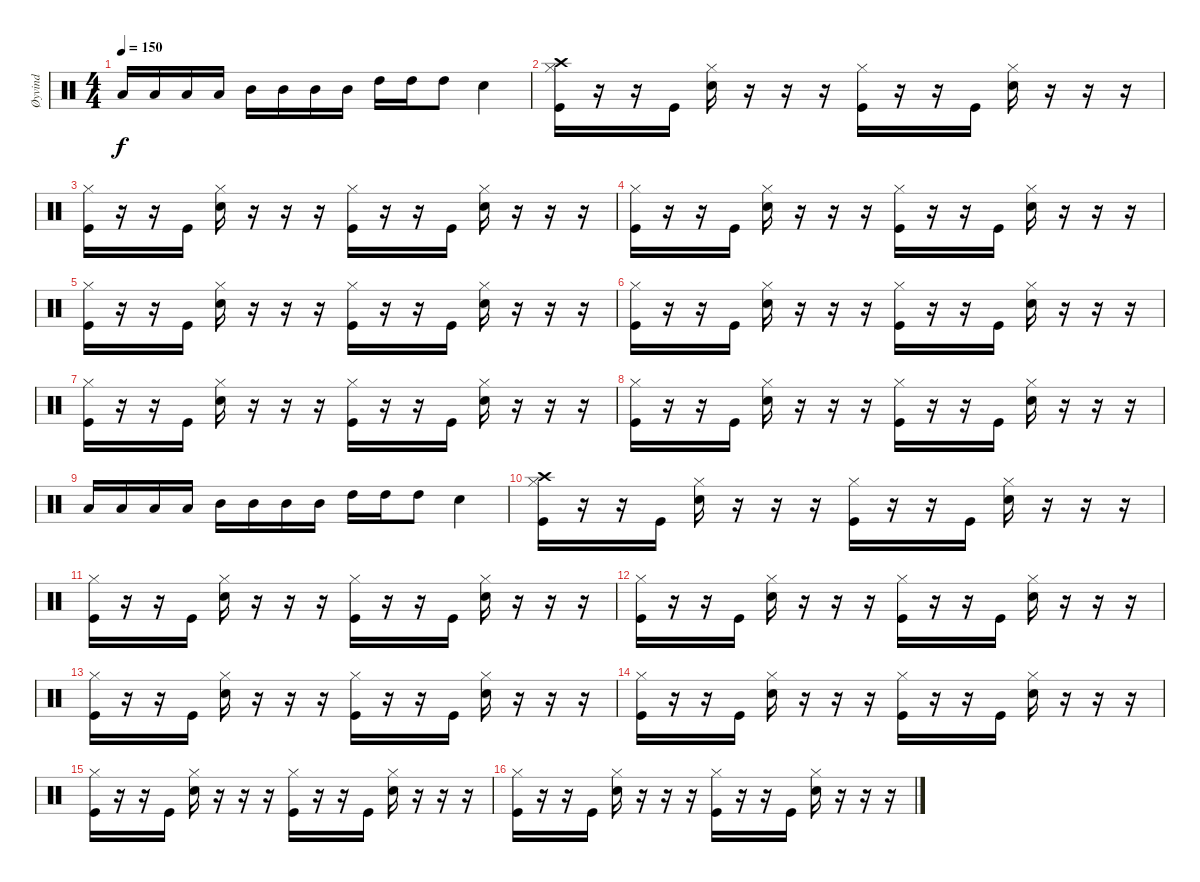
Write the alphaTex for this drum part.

\track ("Øyvind" "Øyvind") {instrument percussion}
\staff {score}
\articulation defaults
\ts (4 4)
\tempo 150
\clef neutral
\ks c "Low Tom (hit)".16{dy f} "Low Tom (hit)".16 "Low Tom (hit)".16 "Low Tom (hit)".16 "Mid Tom (hit)".16 "Mid Tom (hit)".16 "Mid Tom (hit)".16 "Mid Tom (hit)".16 "High Tom (hit)".16 "High Tom (hit)".16 "High Tom (hit)".8 "Snare (hit) 2".4
|
("Crash high (hit)" "Kick (hit)" "Hi-Hat (closed)").16 r.16 r.16 "Kick (hit)".16 ("Electric Snare (hit)" "Hi-Hat (closed)").16 r.16 r.16 r.16 ("Kick (hit)" "Hi-Hat (closed)").16 r.16 r.16 "Kick (hit)".16 ("Electric Snare (hit)" "Hi-Hat (closed)").16 r.16 r.16 r.16 |
("Kick (hit)" "Hi-Hat (closed)").16 r.16 r.16 "Kick (hit)".16 ("Electric Snare (hit)" "Hi-Hat (closed)").16 r.16 r.16 r.16 ("Kick (hit)" "Hi-Hat (closed)").16 r.16 r.16 "Kick (hit)".16 ("Electric Snare (hit)" "Hi-Hat (closed)").16 r.16 r.16 r.16 |
("Kick (hit)" "Hi-Hat (closed)").16 r.16 r.16 "Kick (hit)".16 ("Electric Snare (hit)" "Hi-Hat (closed)").16 r.16 r.16 r.16 ("Kick (hit)" "Hi-Hat (closed)").16 r.16 r.16 "Kick (hit)".16 ("Electric Snare (hit)" "Hi-Hat (closed)").16 r.16 r.16 r.16 |
("Kick (hit)" "Hi-Hat (closed)").16 r.16 r.16 "Kick (hit)".16 ("Electric Snare (hit)" "Hi-Hat (closed)").16 r.16 r.16 r.16 ("Kick (hit)" "Hi-Hat (closed)").16 r.16 r.16 "Kick (hit)".16 ("Electric Snare (hit)" "Hi-Hat (closed)").16 r.16 r.16 r.16 |
("Kick (hit)" "Hi-Hat (closed)").16 r.16 r.16 "Kick (hit)".16 ("Electric Snare (hit)" "Hi-Hat (closed)").16 r.16 r.16 r.16 ("Kick (hit)" "Hi-Hat (closed)").16 r.16 r.16 "Kick (hit)".16 ("Electric Snare (hit)" "Hi-Hat (closed)").16 r.16 r.16 r.16 |
("Kick (hit)" "Hi-Hat (closed)").16 r.16 r.16 "Kick (hit)".16 ("Electric Snare (hit)" "Hi-Hat (closed)").16 r.16 r.16 r.16 ("Kick (hit)" "Hi-Hat (closed)").16 r.16 r.16 "Kick (hit)".16 ("Electric Snare (hit)" "Hi-Hat (closed)").16 r.16 r.16 r.16 |
("Kick (hit)" "Hi-Hat (closed)").16 r.16 r.16 "Kick (hit)".16 ("Electric Snare (hit)" "Hi-Hat (closed)").16 r.16 r.16 r.16 ("Kick (hit)" "Hi-Hat (closed)").16 r.16 r.16 "Kick (hit)".16 ("Electric Snare (hit)" "Hi-Hat (closed)").16 r.16 r.16 r.16 |
"Low Tom (hit)".16 "Low Tom (hit)".16 "Low Tom (hit)".16 "Low Tom (hit)".16 "Mid Tom (hit)".16 "Mid Tom (hit)".16 "Mid Tom (hit)".16 "Mid Tom (hit)".16 "High Tom (hit)".16 "High Tom (hit)".16 "High Tom (hit)".8 "Snare (hit) 2".4 |
("Crash high (hit)" "Kick (hit)" "Hi-Hat (closed)").16 r.16 r.16 "Kick (hit)".16 ("Electric Snare (hit)" "Hi-Hat (closed)").16 r.16 r.16 r.16 ("Kick (hit)" "Hi-Hat (closed)").16 r.16 r.16 "Kick (hit)".16 ("Electric Snare (hit)" "Hi-Hat (closed)").16 r.16 r.16 r.16 |
("Kick (hit)" "Hi-Hat (closed)").16 r.16 r.16 "Kick (hit)".16 ("Electric Snare (hit)" "Hi-Hat (closed)").16 r.16 r.16 r.16 ("Kick (hit)" "Hi-Hat (closed)").16 r.16 r.16 "Kick (hit)".16 ("Electric Snare (hit)" "Hi-Hat (closed)").16 r.16 r.16 r.16 |
("Kick (hit)" "Hi-Hat (closed)").16 r.16 r.16 "Kick (hit)".16 ("Electric Snare (hit)" "Hi-Hat (closed)").16 r.16 r.16 r.16 ("Kick (hit)" "Hi-Hat (closed)").16 r.16 r.16 "Kick (hit)".16 ("Electric Snare (hit)" "Hi-Hat (closed)").16 r.16 r.16 r.16 |
("Kick (hit)" "Hi-Hat (closed)").16 r.16 r.16 "Kick (hit)".16 ("Electric Snare (hit)" "Hi-Hat (closed)").16 r.16 r.16 r.16 ("Kick (hit)" "Hi-Hat (closed)").16 r.16 r.16 "Kick (hit)".16 ("Electric Snare (hit)" "Hi-Hat (closed)").16 r.16 r.16 r.16 |
("Kick (hit)" "Hi-Hat (closed)").16 r.16 r.16 "Kick (hit)".16 ("Electric Snare (hit)" "Hi-Hat (closed)").16 r.16 r.16 r.16 ("Kick (hit)" "Hi-Hat (closed)").16 r.16 r.16 "Kick (hit)".16 ("Electric Snare (hit)" "Hi-Hat (closed)").16 r.16 r.16 r.16 |
("Kick (hit)" "Hi-Hat (closed)").16 r.16 r.16 "Kick (hit)".16 ("Electric Snare (hit)" "Hi-Hat (closed)").16 r.16 r.16 r.16 ("Kick (hit)" "Hi-Hat (closed)").16 r.16 r.16 "Kick (hit)".16 ("Electric Snare (hit)" "Hi-Hat (closed)").16 r.16 r.16 r.16 |
("Kick (hit)" "Hi-Hat (closed)").16 r.16 r.16 "Kick (hit)".16 ("Electric Snare (hit)" "Hi-Hat (closed)").16 r.16 r.16 r.16 ("Kick (hit)" "Hi-Hat (closed)").16 r.16 r.16 "Kick (hit)".16 ("Electric Snare (hit)" "Hi-Hat (closed)").16 r.16 r.16 r.16
